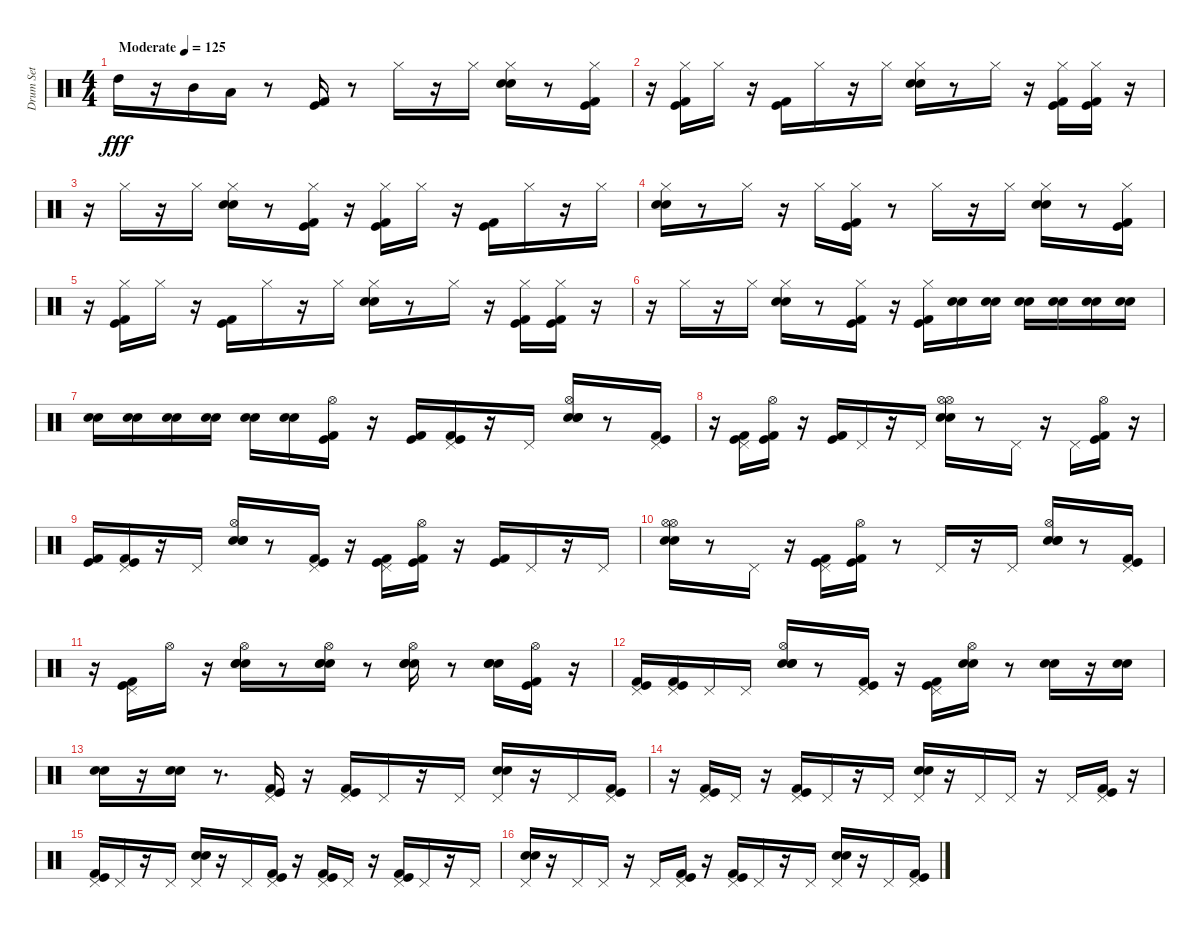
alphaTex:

\track ("Drum Set" "Drum Set") {instrument percussion}
\staff {score}
\articulation defaults
\ts (4 4)
\tempo (125 "Moderate")
\clef neutral
\ks c "High Tom (hit)".16{dy fff}
r.16 "Mid Tom (hit)".16 "Low Tom (hit)".16 r.8 ("Kick (hit) 2" "Kick (hit)").16 r.8 "Hi-Hat (closed)".16 r.16 "Hi-Hat (closed)".16 ("Hi-Hat (closed)" "Electric Snare (hit)" "Snare (hit) 2").16 r.8 ("Hi-Hat (closed)" "Kick (hit) 2" "Kick (hit)").16 |
r.16 ("Hi-Hat (closed)" "Kick (hit)" "Kick (hit) 2").16 "Hi-Hat (closed)".16 r.16 ("Kick (hit) 2" "Kick (hit)").16 "Hi-Hat (closed)".16 r.16 "Hi-Hat (closed)".16 ("Hi-Hat (closed)" "Electric Snare (hit)" "Snare (hit) 2").16 r.8 "Hi-Hat (closed)".16 r.16 ("Hi-Hat (closed)" "Kick (hit)" "Kick (hit) 2").16 ("Kick (hit)" "Kick (hit) 2" "Hi-Hat (closed)").16 r.16 |
r.16 "Hi-Hat (closed)".16 r.16 "Hi-Hat (closed)".16 ("Hi-Hat (closed)" "Electric Snare (hit)" "Snare (hit) 2").16 r.8 ("Hi-Hat (closed)" "Kick (hit) 2" "Kick (hit)").16 r.16 ("Hi-Hat (closed)" "Kick (hit) 2" "Kick (hit)").16 "Hi-Hat (closed)".16 r.16 ("Kick (hit)" "Kick (hit) 2").16 "Hi-Hat (closed)".16 r.16 "Hi-Hat (closed)".16 |
("Hi-Hat (closed)" "Electric Snare (hit)" "Snare (hit) 2").16 r.8 "Hi-Hat (closed)".16 r.16 "Hi-Hat (closed)".16 ("Hi-Hat (closed)" "Kick (hit) 2" "Kick (hit)").16 r.8 "Hi-Hat (closed)".16 r.16 "Hi-Hat (closed)".16 ("Hi-Hat (closed)" "Electric Snare (hit)" "Snare (hit) 2").16 r.8 ("Hi-Hat (closed)" "Kick (hit) 2" "Kick (hit)").16 |
r.16 ("Hi-Hat (closed)" "Kick (hit)" "Kick (hit) 2").16 "Hi-Hat (closed)".16 r.16 ("Kick (hit) 2" "Kick (hit)").16 "Hi-Hat (closed)".16 r.16 "Hi-Hat (closed)".16 ("Hi-Hat (closed)" "Electric Snare (hit)" "Snare (hit) 2").16 r.8 "Hi-Hat (closed)".16 r.16 ("Hi-Hat (closed)" "Kick (hit)" "Kick (hit) 2").16 ("Hi-Hat (closed)" "Kick (hit)" "Kick (hit) 2").16 r.16 |
r.16 "Hi-Hat (closed)".16 r.16 "Hi-Hat (closed)".16 ("Hi-Hat (closed)" "Electric Snare (hit)" "Snare (hit) 2").16 r.8 ("Hi-Hat (closed)" "Kick (hit) 2" "Kick (hit)").16 r.16 ("Hi-Hat (closed)" "Kick (hit)" "Kick (hit) 2").16 ("Snare (hit) 2" "Electric Snare (hit)").16 ("Snare (hit) 2" "Electric Snare (hit)").16 ("Electric Snare (hit)" "Snare (hit) 2").16 ("Snare (hit) 2" "Electric Snare (hit)").16 ("Electric Snare (hit)" "Snare (hit) 2").16 ("Electric Snare (hit)" "Snare (hit) 2").16 |
("Electric Snare (hit)" "Snare (hit) 2").16 ("Electric Snare (hit)" "Snare (hit) 2").16 ("Electric Snare (hit)" "Snare (hit) 2").16 ("Snare (hit) 2" "Electric Snare (hit)").16 ("Snare (hit) 2" "Electric Snare (hit)").16 ("Snare (hit) 2" "Electric Snare (hit)").16 ("Hi-Hat (open)" "Kick (hit)" "Kick (hit) 2").16 r.16 ("Kick (hit)" "Kick (hit) 2").16 ("Pedal Hi-Hat (hit)" "Kick (hit) 2" "Kick (hit)").16 r.16 "Pedal Hi-Hat (hit)".16 ("Electric Snare (hit)" "Hand Clap (hit)" "Snare (hit) 2" "Hi-Hat (open)").16 r.8 ("Kick (hit) 2" "Kick (hit)" "Pedal Hi-Hat (hit)").16 |
r.16 ("Kick (hit)" "Kick (hit) 2" "Pedal Hi-Hat (hit)").16 ("Kick (hit) 2" "Kick (hit)" "Hi-Hat (open)").16 r.16 ("Kick (hit) 2" "Kick (hit)").16 "Pedal Hi-Hat (hit)".16 r.16 "Pedal Hi-Hat (hit)".16 ("Snare (hit) 2" "Electric Snare (hit)" "Hi-Hat (open)" "Hi-Hat (open)").16 r.8 "Pedal Hi-Hat (hit)".16 r.16 "Pedal Hi-Hat (hit)".16 ("Hi-Hat (open)" "Kick (hit)" "Kick (hit) 2").16 r.16 |
("Kick (hit)" "Kick (hit) 2").16 ("Pedal Hi-Hat (hit)" "Kick (hit) 2" "Kick (hit)").16 r.16 "Pedal Hi-Hat (hit)".16 ("Hi-Hat (open)" "Electric Snare (hit)" "Hand Clap (hit)" "Snare (hit) 2").16 r.8 ("Kick (hit) 2" "Kick (hit)" "Pedal Hi-Hat (hit)").16 r.16 ("Pedal Hi-Hat (hit)" "Kick (hit)" "Kick (hit) 2").16 ("Hi-Hat (open)" "Kick (hit) 2" "Kick (hit)").16 r.16 ("Kick (hit) 2" "Kick (hit)").16 "Pedal Hi-Hat (hit)".16 r.16 "Pedal Hi-Hat (hit)".16 |
("Hi-Hat (open)" "Snare (hit) 2" "Electric Snare (hit)" "Hi-Hat (open)").16 r.8 "Pedal Hi-Hat (hit)".16 r.16 ("Kick (hit) 2" "Kick (hit)" "Pedal Hi-Hat (hit)").16 ("Hi-Hat (open)" "Kick (hit) 2" "Kick (hit)").16 r.8 "Pedal Hi-Hat (hit)".16 r.16 "Pedal Hi-Hat (hit)".16 ("Hi-Hat (open)" "Electric Snare (hit)" "Hand Clap (hit)" "Snare (hit) 2").16 r.8 ("Kick (hit) 2" "Kick (hit)" "Pedal Hi-Hat (hit)").16 |
r.16 ("Pedal Hi-Hat (hit)" "Kick (hit)" "Kick (hit) 2").16 "Hi-Hat (open)".16 r.16 ("Hi-Hat (open)" "Electric Snare (hit)" "Hand Clap (hit)" "Snare (hit) 2").16 r.8 ("Hi-Hat (open)" "Snare (hit) 2" "Hand Clap (hit)" "Electric Snare (hit)").16 r.8 ("Hi-Hat (open)" "Electric Snare (hit)" "Hand Clap (hit)" "Snare (hit) 2").16 r.8 ("Snare (hit) 2" "Hand Clap (hit)" "Electric Snare (hit)").16 ("Hi-Hat (open)" "Kick (hit)" "Kick (hit) 2").16 r.16 |
("Pedal Hi-Hat (hit)" "Kick (hit)" "Kick (hit) 2").16 ("Pedal Hi-Hat (hit)" "Kick (hit) 2" "Kick (hit)").16 "Pedal Hi-Hat (hit)".16 "Pedal Hi-Hat (hit)".16 ("Hi-Hat (open)" "Electric Snare (hit)" "Hand Clap (hit)" "Snare (hit) 2").16 r.8 ("Kick (hit) 2" "Kick (hit)" "Pedal Hi-Hat (hit)").16 r.16 ("Kick (hit)" "Kick (hit) 2" "Pedal Hi-Hat (hit)").16 ("Electric Snare (hit)" "Snare (hit) 2" "Hi-Hat (open)").16 r.8 ("Snare (hit) 2" "Electric Snare (hit)").16 r.16 ("Snare (hit) 2" "Electric Snare (hit)").16 |
("Electric Snare (hit)" "Snare (hit) 2").16 r.16 ("Electric Snare (hit)" "Snare (hit) 2").16 r.8{d} ("Pedal Hi-Hat (hit)" "Kick (hit) 2" "Kick (hit)").16 r.16 ("Kick (hit)" "Kick (hit) 2" "Pedal Hi-Hat (hit)").16 "Pedal Hi-Hat (hit)".16 r.16 "Pedal Hi-Hat (hit)".16 ("Electric Snare (hit)" "Snare (hit) 2" "Pedal Hi-Hat (hit)").16 r.16 "Pedal Hi-Hat (hit)".16 ("Kick (hit)" "Kick (hit) 2" "Pedal Hi-Hat (hit)").16 |
r.16 ("Pedal Hi-Hat (hit)" "Kick (hit) 2" "Kick (hit)").16 "Pedal Hi-Hat (hit)".16 r.16 ("Kick (hit)" "Kick (hit) 2" "Pedal Hi-Hat (hit)").16 "Pedal Hi-Hat (hit)".16 r.16 "Pedal Hi-Hat (hit)".16 ("Snare (hit) 2" "Electric Snare (hit)" "Pedal Hi-Hat (hit)").16 r.16 "Pedal Hi-Hat (hit)".16 "Pedal Hi-Hat (hit)".16 r.16 "Pedal Hi-Hat (hit)".16 ("Pedal Hi-Hat (hit)" "Kick (hit) 2" "Kick (hit)").16 r.16 |
("Kick (hit)" "Kick (hit) 2" "Pedal Hi-Hat (hit)").16 "Pedal Hi-Hat (hit)".16 r.16 "Pedal Hi-Hat (hit)".16 ("Electric Snare (hit)" "Snare (hit) 2" "Pedal Hi-Hat (hit)").16 r.16 "Pedal Hi-Hat (hit)".16 ("Kick (hit)" "Kick (hit) 2" "Pedal Hi-Hat (hit)").16 r.16 ("Kick (hit) 2" "Kick (hit)" "Pedal Hi-Hat (hit)").16 "Pedal Hi-Hat (hit)".16 r.16 ("Kick (hit)" "Kick (hit) 2" "Pedal Hi-Hat (hit)").16 "Pedal Hi-Hat (hit)".16 r.16 "Pedal Hi-Hat (hit)".16 |
("Snare (hit) 2" "Electric Snare (hit)" "Pedal Hi-Hat (hit)").16 r.16 "Pedal Hi-Hat (hit)".16 "Pedal Hi-Hat (hit)".16 r.16 "Pedal Hi-Hat (hit)".16 ("Pedal Hi-Hat (hit)" "Kick (hit) 2" "Kick (hit)").16 r.16 ("Kick (hit)" "Kick (hit) 2" "Pedal Hi-Hat (hit)").16 "Pedal Hi-Hat (hit)".16 r.16 "Pedal Hi-Hat (hit)".16 ("Electric Snare (hit)" "Snare (hit) 2" "Pedal Hi-Hat (hit)").16 r.16 "Pedal Hi-Hat (hit)".16 ("Kick (hit)" "Kick (hit) 2" "Pedal Hi-Hat (hit)").16
